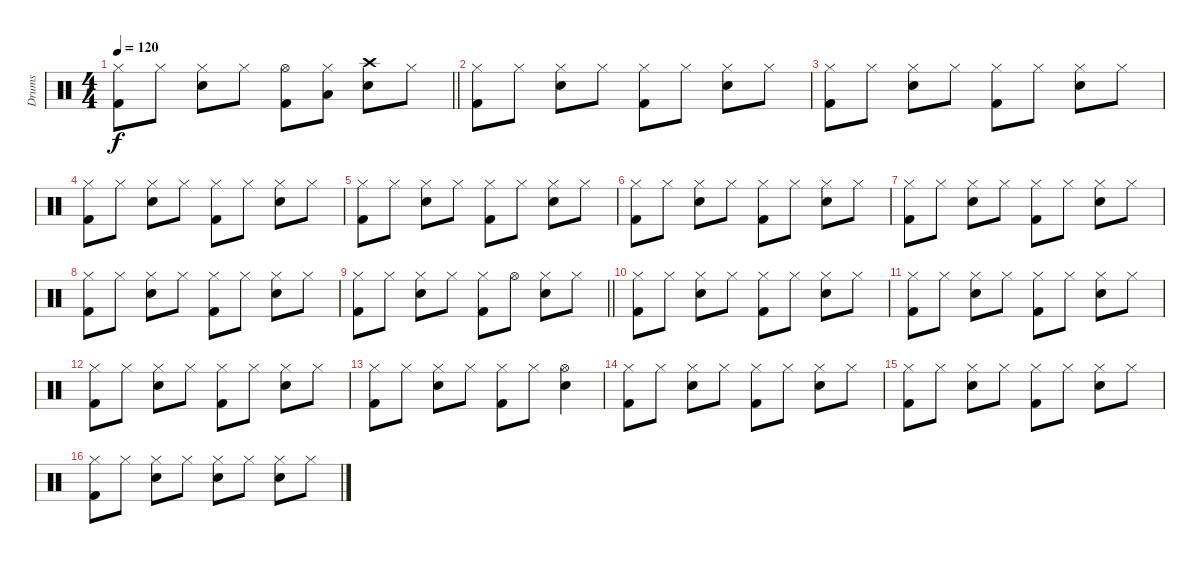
\track ("Drums" "Drums") {instrument percussion}
\staff {score}
\articulation defaults
\ts (4 4)
\tempo 120
\clef neutral
\barLineRight lightlight
\ks c
("Hi-Hat (closed)" "Kick (hit) 2").8{dy f} "Hi-Hat (closed)".8 ("Hi-Hat (closed)" "Snare (hit) 2").8 "Hi-Hat (closed)".8 ("Hi-Hat (open)" "Kick (hit) 2").8 ("Hi-Hat (closed)" "Low Tom (hit)").8 ("Crash high (hit)" "Snare (hit) 2").8 "Hi-Hat (closed)".8 |
("Hi-Hat (closed)" "Kick (hit) 2").8 "Hi-Hat (closed)".8 ("Hi-Hat (closed)" "Snare (hit) 2").8 "Hi-Hat (closed)".8 ("Hi-Hat (closed)" "Kick (hit) 2").8 "Hi-Hat (closed)".8 ("Hi-Hat (closed)" "Snare (hit) 2").8 "Hi-Hat (closed)".8 |
("Hi-Hat (closed)" "Kick (hit) 2").8 "Hi-Hat (closed)".8 ("Hi-Hat (closed)" "Snare (hit) 2").8 "Hi-Hat (closed)".8 ("Hi-Hat (closed)" "Kick (hit) 2").8 "Hi-Hat (closed)".8 ("Hi-Hat (closed)" "Snare (hit) 2").8 "Hi-Hat (closed)".8 |
("Hi-Hat (closed)" "Kick (hit) 2").8 "Hi-Hat (closed)".8 ("Hi-Hat (closed)" "Snare (hit) 2").8 "Hi-Hat (closed)".8 ("Hi-Hat (closed)" "Kick (hit) 2").8 "Hi-Hat (closed)".8 ("Hi-Hat (closed)" "Snare (hit) 2").8 "Hi-Hat (closed)".8 |
("Hi-Hat (closed)" "Kick (hit) 2").8 "Hi-Hat (closed)".8 ("Hi-Hat (closed)" "Snare (hit) 2").8 "Hi-Hat (closed)".8 ("Hi-Hat (closed)" "Kick (hit) 2").8 "Hi-Hat (closed)".8 ("Hi-Hat (closed)" "Snare (hit) 2").8 "Hi-Hat (closed)".8 |
("Hi-Hat (closed)" "Kick (hit) 2").8 "Hi-Hat (closed)".8 ("Hi-Hat (closed)" "Snare (hit) 2").8 "Hi-Hat (closed)".8 ("Hi-Hat (closed)" "Kick (hit) 2").8 "Hi-Hat (closed)".8 ("Hi-Hat (closed)" "Snare (hit) 2").8 "Hi-Hat (closed)".8 |
("Hi-Hat (closed)" "Kick (hit) 2").8 "Hi-Hat (closed)".8 ("Hi-Hat (closed)" "Snare (hit) 2").8 "Hi-Hat (closed)".8 ("Hi-Hat (closed)" "Kick (hit) 2").8 "Hi-Hat (closed)".8 ("Hi-Hat (closed)" "Snare (hit) 2").8 "Hi-Hat (closed)".8 |
("Hi-Hat (closed)" "Kick (hit) 2").8 "Hi-Hat (closed)".8 ("Hi-Hat (closed)" "Snare (hit) 2").8 "Hi-Hat (closed)".8 ("Hi-Hat (closed)" "Kick (hit) 2").8 "Hi-Hat (closed)".8 ("Hi-Hat (closed)" "Snare (hit) 2").8 "Hi-Hat (closed)".8 |
\barLineRight lightlight
("Hi-Hat (closed)" "Kick (hit) 2").8 "Hi-Hat (closed)".8 ("Hi-Hat (closed)" "Snare (hit) 2").8 "Hi-Hat (closed)".8 ("Hi-Hat (closed)" "Kick (hit) 2").8 "Hi-Hat (open)".8 ("Hi-Hat (closed)" "Snare (hit) 2").8 "Hi-Hat (closed)".8 |
("Hi-Hat (closed)" "Kick (hit) 2").8 "Hi-Hat (closed)".8 ("Hi-Hat (closed)" "Snare (hit) 2").8 "Hi-Hat (closed)".8 ("Hi-Hat (closed)" "Kick (hit) 2").8 "Hi-Hat (closed)".8 ("Hi-Hat (closed)" "Snare (hit) 2").8 "Hi-Hat (closed)".8 |
("Hi-Hat (closed)" "Kick (hit) 2").8 "Hi-Hat (closed)".8 ("Hi-Hat (closed)" "Snare (hit) 2").8 "Hi-Hat (closed)".8 ("Hi-Hat (closed)" "Kick (hit) 2").8 "Hi-Hat (closed)".8 ("Hi-Hat (closed)" "Snare (hit) 2").8 "Hi-Hat (closed)".8 |
("Hi-Hat (closed)" "Kick (hit) 2").8 "Hi-Hat (closed)".8 ("Hi-Hat (closed)" "Snare (hit) 2").8 "Hi-Hat (closed)".8 ("Hi-Hat (closed)" "Kick (hit) 2").8 "Hi-Hat (closed)".8 ("Hi-Hat (closed)" "Snare (hit) 2").8 "Hi-Hat (closed)".8 |
("Hi-Hat (closed)" "Kick (hit) 2").8 "Hi-Hat (closed)".8 ("Hi-Hat (closed)" "Snare (hit) 2").8 "Hi-Hat (closed)".8 ("Hi-Hat (closed)" "Kick (hit) 2").8 "Hi-Hat (closed)".8 ("Hi-Hat (open)" "Snare (hit) 2").4 |
("Hi-Hat (closed)" "Kick (hit) 2").8 "Hi-Hat (closed)".8 ("Hi-Hat (closed)" "Snare (hit) 2").8 "Hi-Hat (closed)".8 ("Hi-Hat (closed)" "Kick (hit) 2").8 "Hi-Hat (closed)".8 ("Hi-Hat (closed)" "Snare (hit) 2").8 "Hi-Hat (closed)".8 |
("Hi-Hat (closed)" "Kick (hit) 2").8 "Hi-Hat (closed)".8 ("Hi-Hat (closed)" "Snare (hit) 2").8 "Hi-Hat (closed)".8 ("Hi-Hat (closed)" "Kick (hit) 2").8 "Hi-Hat (closed)".8 ("Hi-Hat (closed)" "Snare (hit) 2").8 "Hi-Hat (closed)".8 |
("Hi-Hat (closed)" "Kick (hit) 2").8 "Hi-Hat (closed)".8 ("Hi-Hat (closed)" "Snare (hit) 2").8 "Hi-Hat (closed)".8 ("Hi-Hat (closed)" "Snare (hit) 2").8 "Hi-Hat (closed)".8 ("Hi-Hat (closed)" "Snare (hit) 2").8 "Hi-Hat (closed)".8
